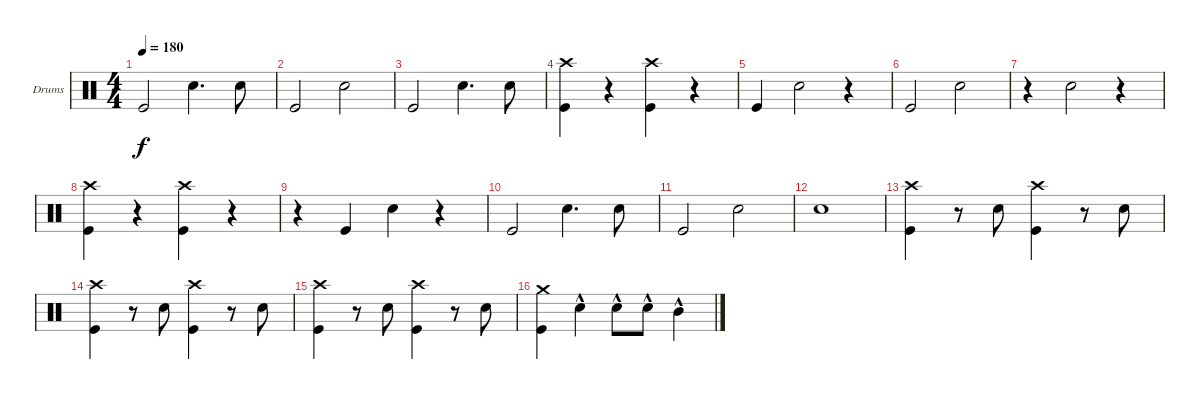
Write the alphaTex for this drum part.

\bracketExtendMode groupsimilarinstruments
\firstSystemTrackNameOrientation horizontal
\otherSystemsTrackNameOrientation horizontal
\track ("Drumkit" "Drums") {solo instrument percussion}
\staff {score}
\articulation defaults
\ts (4 4)
\tempo 180
\clef neutral
\ks c "Kick (hit)".2{dy f} "Snare (hit) 2".4{d} "Snare (hit) 2".8
|
"Kick (hit)".2 "Snare (hit) 2".2 |
"Kick (hit)".2 "Snare (hit) 2".4{d} "Snare (hit) 2".8 |
("Crash high (hit)" "Kick (hit)").4 r.4 ("Crash high (hit)" "Kick (hit)").4 r.4 |
"Kick (hit)".4 "Snare (hit) 2".2 r.4 |
"Kick (hit)".2 "Snare (hit) 2".2 |
r.4 "Snare (hit) 2".2 r.4 |
("Crash high (hit)" "Kick (hit)").4 r.4 ("Crash high (hit)" "Kick (hit)").4 r.4 |
r.4 "Kick (hit)".4 "Snare (hit) 2".4 r.4 |
"Kick (hit)".2 "Snare (hit) 2".4{d} "Snare (hit) 2".8 |
"Kick (hit)".2 "Snare (hit) 2".2 |
"Snare (hit) 2".1 |
("Crash high (hit)" "Kick (hit)").4 r.8 "Snare (hit) 2".8 ("Crash high (hit)" "Kick (hit)").4 r.8 "Snare (hit) 2".8 |
("Crash high (hit)" "Kick (hit)").4 r.8 "Snare (hit) 2".8 ("Crash high (hit)" "Kick (hit)").4 r.8 "Snare (hit) 2".8 |
("Crash high (hit)" "Kick (hit)").4 r.8 "Snare (hit) 2".8 ("Crash high (hit)" "Kick (hit)").4 r.8 "Snare (hit) 2".8 |
("Crash medium (hit)" "Kick (hit)").4 "Snare (hit) 2"{hac}.4 "Snare (hit) 2"{hac}.8 "Snare (hit) 2"{hac}.8 "Mid Tom (hit)"{hac}.4
